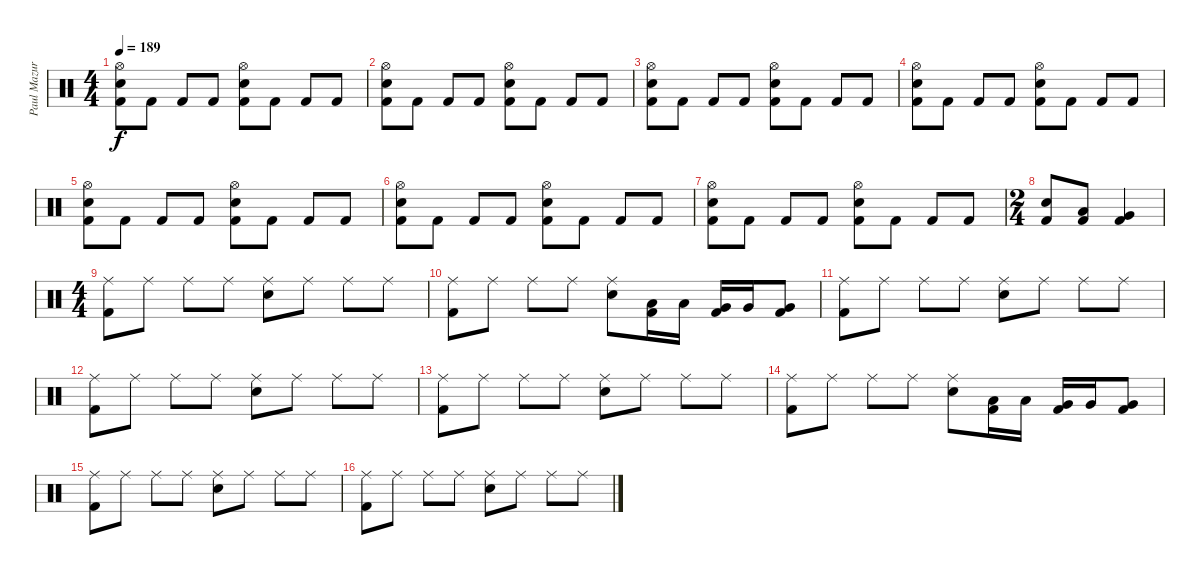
\track ("Paul Mazurkevitch" "Paul Mazur") {instrument percussion}
\staff {score}
\articulation defaults
\ts (4 4)
\tempo 189
\clef neutral
\ks c
("Hi-Hat (open)" "Electric Snare (hit)" "Kick (hit) 2").8{dy f} "Kick (hit) 2".8 "Kick (hit) 2".8 "Kick (hit) 2".8 ("Hi-Hat (open)" "Electric Snare (hit)" "Kick (hit) 2").8 "Kick (hit) 2".8 "Kick (hit) 2".8 "Kick (hit) 2".8 |
("Hi-Hat (open)" "Electric Snare (hit)" "Kick (hit) 2").8 "Kick (hit) 2".8 "Kick (hit) 2".8 "Kick (hit) 2".8 ("Hi-Hat (open)" "Electric Snare (hit)" "Kick (hit) 2").8 "Kick (hit) 2".8 "Kick (hit) 2".8 "Kick (hit) 2".8 |
("Hi-Hat (open)" "Electric Snare (hit)" "Kick (hit) 2").8 "Kick (hit) 2".8 "Kick (hit) 2".8 "Kick (hit) 2".8 ("Hi-Hat (open)" "Electric Snare (hit)" "Kick (hit) 2").8 "Kick (hit) 2".8 "Kick (hit) 2".8 "Kick (hit) 2".8 |
("Hi-Hat (open)" "Electric Snare (hit)" "Kick (hit) 2").8 "Kick (hit) 2".8 "Kick (hit) 2".8 "Kick (hit) 2".8 ("Hi-Hat (open)" "Electric Snare (hit)" "Kick (hit) 2").8 "Kick (hit) 2".8 "Kick (hit) 2".8 "Kick (hit) 2".8 |
("Hi-Hat (open)" "Electric Snare (hit)" "Kick (hit) 2").8 "Kick (hit) 2".8 "Kick (hit) 2".8 "Kick (hit) 2".8 ("Hi-Hat (open)" "Electric Snare (hit)" "Kick (hit) 2").8 "Kick (hit) 2".8 "Kick (hit) 2".8 "Kick (hit) 2".8 |
("Hi-Hat (open)" "Electric Snare (hit)" "Kick (hit) 2").8 "Kick (hit) 2".8 "Kick (hit) 2".8 "Kick (hit) 2".8 ("Hi-Hat (open)" "Electric Snare (hit)" "Kick (hit) 2").8 "Kick (hit) 2".8 "Kick (hit) 2".8 "Kick (hit) 2".8 |
("Hi-Hat (open)" "Electric Snare (hit)" "Kick (hit) 2").8 "Kick (hit) 2".8 "Kick (hit) 2".8 "Kick (hit) 2".8 ("Hi-Hat (open)" "Electric Snare (hit)" "Kick (hit) 2").8 "Kick (hit) 2".8 "Kick (hit) 2".8 "Kick (hit) 2".8 |
\ts (2 4)
("Electric Snare (hit)" "Kick (hit) 2").8 ("Low Tom (hit)" "Kick (hit) 2").8 ("Very Low Tom (hit)" "Kick (hit) 2").4 |
\ts (4 4)
("Ride (middle)" "Kick (hit) 2").8 "Ride (middle)".8 "Ride (middle)".8 "Ride (middle)".8 ("Ride (middle)" "Electric Snare (hit)").8 "Ride (middle)".8 "Ride (middle)".8 "Ride (middle)".8 |
("Ride (middle)" "Kick (hit) 2").8 "Ride (middle)".8 "Ride (middle)".8 "Ride (middle)".8 ("Ride (middle)" "Electric Snare (hit)").8 ("Low Tom (hit)" "Kick (hit) 2").16 "Low Tom (hit)".16 ("Very Low Tom (hit)" "Kick (hit) 2").16 "Very Low Tom (hit)".16 ("Very Low Tom (hit)" "Kick (hit) 2").8 |
("Ride (middle)" "Kick (hit) 2").8 "Ride (middle)".8 "Ride (middle)".8 "Ride (middle)".8 ("Ride (middle)" "Electric Snare (hit)").8 "Ride (middle)".8 "Ride (middle)".8 "Ride (middle)".8 |
("Ride (middle)" "Kick (hit) 2").8 "Ride (middle)".8 "Ride (middle)".8 "Ride (middle)".8 ("Ride (middle)" "Electric Snare (hit)").8 "Ride (middle)".8 "Ride (middle)".8 "Ride (middle)".8 |
("Ride (middle)" "Kick (hit) 2").8 "Ride (middle)".8 "Ride (middle)".8 "Ride (middle)".8 ("Ride (middle)" "Electric Snare (hit)").8 "Ride (middle)".8 "Ride (middle)".8 "Ride (middle)".8 |
("Ride (middle)" "Kick (hit) 2").8 "Ride (middle)".8 "Ride (middle)".8 "Ride (middle)".8 ("Ride (middle)" "Electric Snare (hit)").8 ("Low Tom (hit)" "Kick (hit) 2").16 "Low Tom (hit)".16 ("Very Low Tom (hit)" "Kick (hit) 2").16 "Very Low Tom (hit)".16 ("Very Low Tom (hit)" "Kick (hit) 2").8 |
("Ride (middle)" "Kick (hit) 2").8 "Ride (middle)".8 "Ride (middle)".8 "Ride (middle)".8 ("Ride (middle)" "Electric Snare (hit)").8 "Ride (middle)".8 "Ride (middle)".8 "Ride (middle)".8 |
("Ride (middle)" "Kick (hit) 2").8 "Ride (middle)".8 "Ride (middle)".8 "Ride (middle)".8 ("Ride (middle)" "Electric Snare (hit)").8 "Ride (middle)".8 "Ride (middle)".8 "Ride (middle)".8
